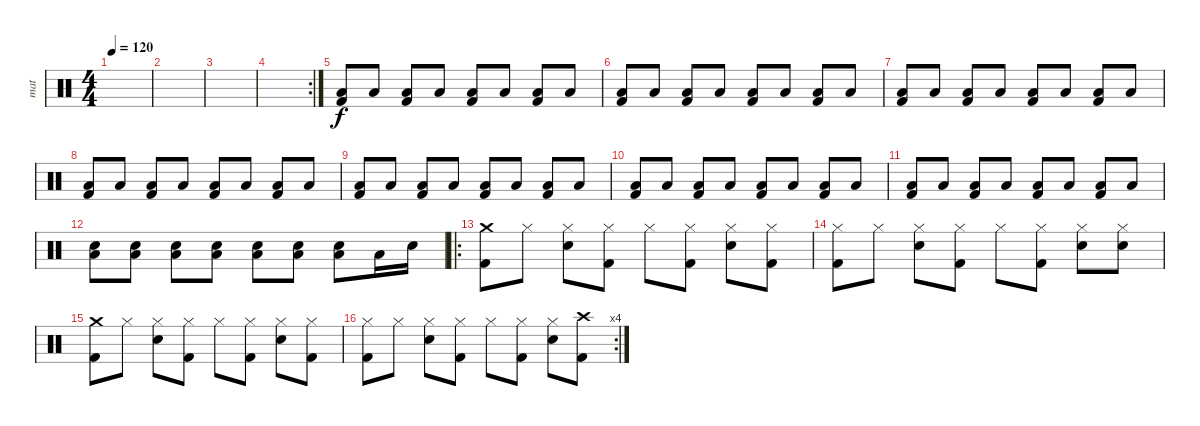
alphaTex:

\track ("mat" "mat") {instrument percussion}
\staff {score}
\articulation defaults
\ts (4 4)
\tempo 120
\clef neutral
\ks c
|
|
|
\rc 2
|
("Low Floor Tom (hit)" "Kick (hit) 2").8 "Low Floor Tom (hit)".8 ("Low Floor Tom (hit)" "Kick (hit) 2").8 "Low Floor Tom (hit)".8 ("Low Floor Tom (hit)" "Kick (hit) 2").8 "Low Floor Tom (hit)".8 ("Low Floor Tom (hit)" "Kick (hit) 2").8 "Low Floor Tom (hit)".8 |
("Low Floor Tom (hit)" "Kick (hit) 2").8 "Low Floor Tom (hit)".8 ("Low Floor Tom (hit)" "Kick (hit) 2").8 "Low Floor Tom (hit)".8 ("Low Floor Tom (hit)" "Kick (hit) 2").8 "Low Floor Tom (hit)".8 ("Low Floor Tom (hit)" "Kick (hit) 2").8 "Low Floor Tom (hit)".8 |
("Low Floor Tom (hit)" "Kick (hit) 2").8 "Low Floor Tom (hit)".8 ("Low Floor Tom (hit)" "Kick (hit) 2").8 "Low Floor Tom (hit)".8 ("Low Floor Tom (hit)" "Kick (hit) 2").8 "Low Floor Tom (hit)".8 ("Low Floor Tom (hit)" "Kick (hit) 2").8 "Low Floor Tom (hit)".8 |
("Low Floor Tom (hit)" "Kick (hit) 2").8 "Low Floor Tom (hit)".8 ("Low Floor Tom (hit)" "Kick (hit) 2").8 "Low Floor Tom (hit)".8 ("Low Floor Tom (hit)" "Kick (hit) 2").8 "Low Floor Tom (hit)".8 ("Low Floor Tom (hit)" "Kick (hit) 2").8 "Low Floor Tom (hit)".8 |
("Low Floor Tom (hit)" "Kick (hit) 2").8 "Low Floor Tom (hit)".8 ("Low Floor Tom (hit)" "Kick (hit) 2").8 "Low Floor Tom (hit)".8 ("Low Floor Tom (hit)" "Kick (hit) 2").8 "Low Floor Tom (hit)".8 ("Low Floor Tom (hit)" "Kick (hit) 2").8 "Low Floor Tom (hit)".8 |
("Low Floor Tom (hit)" "Kick (hit) 2").8 "Low Floor Tom (hit)".8 ("Low Floor Tom (hit)" "Kick (hit) 2").8 "Low Floor Tom (hit)".8 ("Low Floor Tom (hit)" "Kick (hit) 2").8 "Low Floor Tom (hit)".8 ("Low Floor Tom (hit)" "Kick (hit) 2").8 "Low Floor Tom (hit)".8 |
("Low Floor Tom (hit)" "Kick (hit) 2").8 "Low Floor Tom (hit)".8 ("Low Floor Tom (hit)" "Kick (hit) 2").8 "Low Floor Tom (hit)".8 ("Low Floor Tom (hit)" "Kick (hit) 2").8 "Low Floor Tom (hit)".8 ("Low Floor Tom (hit)" "Kick (hit) 2").8 "Low Floor Tom (hit)".8 |
("Low Floor Tom (hit)" "Snare (hit) 2").8 ("Low Floor Tom (hit)" "Snare (hit) 2").8 ("Low Floor Tom (hit)" "Snare (hit) 2").8 ("Low Floor Tom (hit)" "Snare (hit) 2").8 ("Low Floor Tom (hit)" "Snare (hit) 2").8 ("Low Floor Tom (hit)" "Snare (hit) 2").8 ("Low Floor Tom (hit)" "Snare (hit) 2").8 "Low Floor Tom (hit)".16 "Snare (hit) 2".16 |
\ro
("Kick (hit) 2" "Crash medium (hit)").8 "Hi-Hat (closed)".8 ("Snare (hit) 2" "Hi-Hat (closed)").8 ("Kick (hit) 2" "Hi-Hat (closed)").8 "Hi-Hat (closed)".8 ("Kick (hit) 2" "Hi-Hat (closed)").8 ("Snare (hit) 2" "Hi-Hat (closed)").8 ("Kick (hit) 2" "Hi-Hat (closed)").8 |
("Kick (hit) 2" "Hi-Hat (closed)").8 "Hi-Hat (closed)".8 ("Snare (hit) 2" "Hi-Hat (closed)").8 ("Kick (hit) 2" "Hi-Hat (closed)").8 "Hi-Hat (closed)".8 ("Kick (hit) 2" "Hi-Hat (closed)").8 ("Snare (hit) 2" "Hi-Hat (closed)").8 ("Hi-Hat (closed)" "Snare (hit) 2").8 |
("Kick (hit) 2" "Crash medium (hit)").8 "Hi-Hat (closed)".8 ("Snare (hit) 2" "Hi-Hat (closed)").8 ("Kick (hit) 2" "Hi-Hat (closed)").8 "Hi-Hat (closed)".8 ("Kick (hit) 2" "Hi-Hat (closed)").8 ("Snare (hit) 2" "Hi-Hat (closed)").8 ("Kick (hit) 2" "Hi-Hat (closed)").8 |
\rc 4
("Kick (hit) 2" "Hi-Hat (closed)").8 "Hi-Hat (closed)".8 ("Snare (hit) 2" "Hi-Hat (closed)").8 ("Kick (hit) 2" "Hi-Hat (closed)").8 "Hi-Hat (closed)".8 ("Kick (hit) 2" "Hi-Hat (closed)").8 ("Snare (hit) 2" "Hi-Hat (closed)").8 ("Kick (hit) 2" "Crash high (hit)").8
